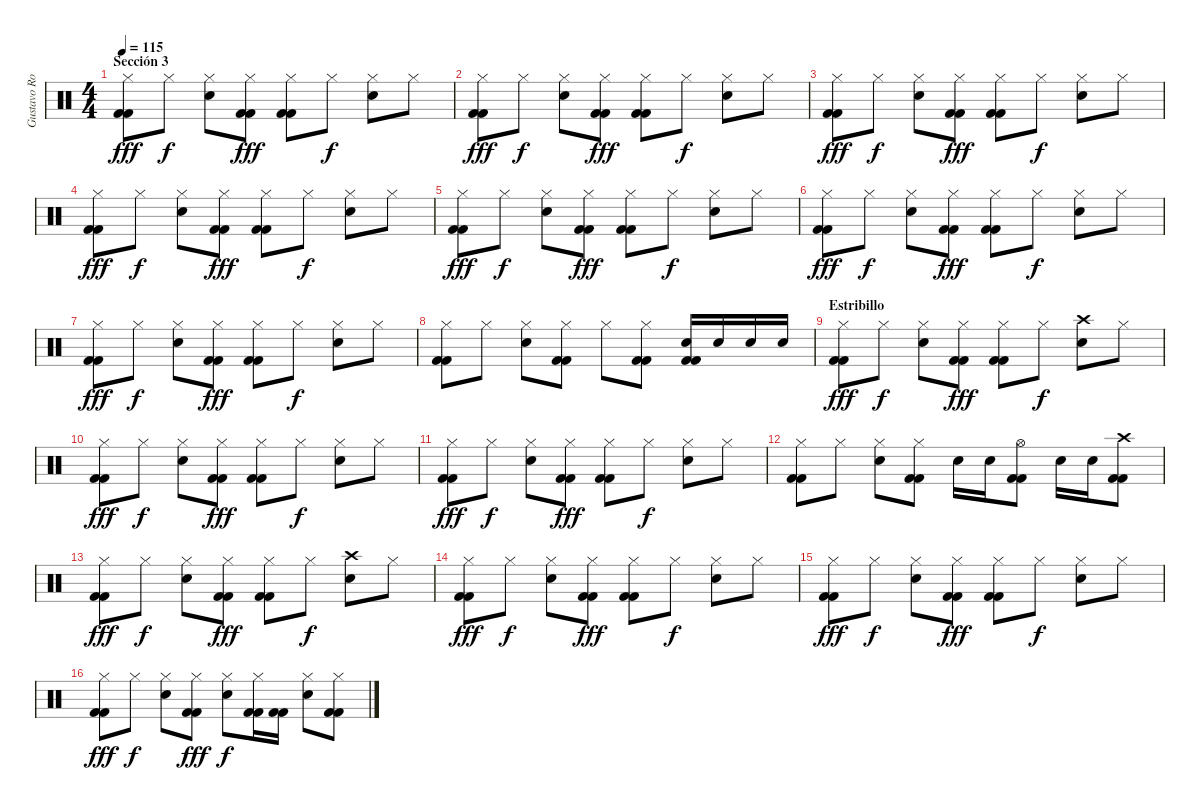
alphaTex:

\track ("Gustavo Rowek" "Gustavo Ro") {instrument percussion}
\staff {score}
\articulation defaults
\ts (4 4)
\section ("" "Sección 3")
\tempo 115
\clef neutral
\ks c
("Kick (hit) 2" "Kick (hit) 2" "Hi-Hat (closed)").8{dy fff} "Hi-Hat (closed)".8{dy f} ("Snare (hit) 2" "Hi-Hat (closed)").8 ("Kick (hit) 2" "Kick (hit) 2" "Hi-Hat (closed)").8{dy fff} ("Kick (hit) 2" "Kick (hit) 2" "Hi-Hat (closed)").8 "Hi-Hat (closed)".8{dy f} ("Snare (hit) 2" "Hi-Hat (closed)").8 "Hi-Hat (closed)".8 |
("Kick (hit) 2" "Kick (hit) 2" "Hi-Hat (closed)").8{dy fff} "Hi-Hat (closed)".8{dy f} ("Snare (hit) 2" "Hi-Hat (closed)").8 ("Kick (hit) 2" "Kick (hit) 2" "Hi-Hat (closed)").8{dy fff} ("Kick (hit) 2" "Kick (hit) 2" "Hi-Hat (closed)").8 "Hi-Hat (closed)".8{dy f} ("Snare (hit) 2" "Hi-Hat (closed)").8 "Hi-Hat (closed)".8 |
("Kick (hit) 2" "Kick (hit) 2" "Hi-Hat (closed)").8{dy fff} "Hi-Hat (closed)".8{dy f} ("Snare (hit) 2" "Hi-Hat (closed)").8 ("Kick (hit) 2" "Kick (hit) 2" "Hi-Hat (closed)").8{dy fff} ("Kick (hit) 2" "Kick (hit) 2" "Hi-Hat (closed)").8 "Hi-Hat (closed)".8{dy f} ("Snare (hit) 2" "Hi-Hat (closed)").8 "Hi-Hat (closed)".8 |
("Kick (hit) 2" "Kick (hit) 2" "Hi-Hat (closed)").8{dy fff} "Hi-Hat (closed)".8{dy f} ("Snare (hit) 2" "Hi-Hat (closed)").8 ("Kick (hit) 2" "Kick (hit) 2" "Hi-Hat (closed)").8{dy fff} ("Kick (hit) 2" "Kick (hit) 2" "Hi-Hat (closed)").8 "Hi-Hat (closed)".8{dy f} ("Snare (hit) 2" "Hi-Hat (closed)").8 "Hi-Hat (closed)".8 |
("Kick (hit) 2" "Kick (hit) 2" "Hi-Hat (closed)").8{dy fff} "Hi-Hat (closed)".8{dy f} ("Snare (hit) 2" "Hi-Hat (closed)").8 ("Kick (hit) 2" "Kick (hit) 2" "Hi-Hat (closed)").8{dy fff} ("Kick (hit) 2" "Kick (hit) 2" "Hi-Hat (closed)").8 "Hi-Hat (closed)".8{dy f} ("Snare (hit) 2" "Hi-Hat (closed)").8 "Hi-Hat (closed)".8 |
("Kick (hit) 2" "Kick (hit) 2" "Hi-Hat (closed)").8{dy fff} "Hi-Hat (closed)".8{dy f} ("Snare (hit) 2" "Hi-Hat (closed)").8 ("Kick (hit) 2" "Kick (hit) 2" "Hi-Hat (closed)").8{dy fff} ("Kick (hit) 2" "Kick (hit) 2" "Hi-Hat (closed)").8 "Hi-Hat (closed)".8{dy f} ("Snare (hit) 2" "Hi-Hat (closed)").8 "Hi-Hat (closed)".8 |
("Kick (hit) 2" "Kick (hit) 2" "Hi-Hat (closed)").8{dy fff} "Hi-Hat (closed)".8{dy f} ("Snare (hit) 2" "Hi-Hat (closed)").8 ("Kick (hit) 2" "Kick (hit) 2" "Hi-Hat (closed)").8{dy fff} ("Kick (hit) 2" "Kick (hit) 2" "Hi-Hat (closed)").8 "Hi-Hat (closed)".8{dy f} ("Snare (hit) 2" "Hi-Hat (closed)").8 "Hi-Hat (closed)".8 |
("Kick (hit) 2" "Kick (hit) 2" "Hi-Hat (closed)").8 "Hi-Hat (closed)".8 ("Snare (hit) 2" "Hi-Hat (closed)").8 ("Kick (hit) 2" "Kick (hit) 2" "Hi-Hat (closed)").8 "Hi-Hat (closed)".8 ("Kick (hit) 2" "Kick (hit) 2" "Hi-Hat (closed)").8 ("Kick (hit) 2" "Kick (hit) 2" "Snare (hit) 2").16 "Snare (hit) 2".16 "Snare (hit) 2".16 "Snare (hit) 2".16 |
\section ("" "Estribillo")
("Kick (hit) 2" "Kick (hit) 2" "Hi-Hat (closed)").8{dy fff} "Hi-Hat (closed)".8{dy f} ("Snare (hit) 2" "Hi-Hat (closed)").8 ("Kick (hit) 2" "Kick (hit) 2" "Hi-Hat (closed)").8{dy fff} ("Kick (hit) 2" "Kick (hit) 2" "Hi-Hat (closed)").8 "Hi-Hat (closed)".8{dy f} ("Snare (hit) 2" "Crash high (hit)").8 "Hi-Hat (closed)".8 |
("Kick (hit) 2" "Kick (hit) 2" "Hi-Hat (closed)").8{dy fff} "Hi-Hat (closed)".8{dy f} ("Snare (hit) 2" "Hi-Hat (closed)").8 ("Kick (hit) 2" "Kick (hit) 2" "Hi-Hat (closed)").8{dy fff} ("Kick (hit) 2" "Kick (hit) 2" "Hi-Hat (closed)").8 "Hi-Hat (closed)".8{dy f} ("Snare (hit) 2" "Hi-Hat (closed)").8 "Hi-Hat (closed)".8 |
("Kick (hit) 2" "Kick (hit) 2" "Hi-Hat (closed)").8{dy fff} "Hi-Hat (closed)".8{dy f} ("Snare (hit) 2" "Hi-Hat (closed)").8 ("Kick (hit) 2" "Kick (hit) 2" "Hi-Hat (closed)").8{dy fff} ("Kick (hit) 2" "Kick (hit) 2" "Hi-Hat (closed)").8 "Hi-Hat (closed)".8{dy f} ("Snare (hit) 2" "Hi-Hat (closed)").8 "Hi-Hat (closed)".8 |
("Kick (hit) 2" "Kick (hit) 2" "Hi-Hat (closed)").8 "Hi-Hat (closed)".8 ("Snare (hit) 2" "Hi-Hat (closed)").8 ("Kick (hit) 2" "Kick (hit) 2" "Hi-Hat (closed)").8 "Snare (hit) 2".16 "Snare (hit) 2".16 ("Kick (hit) 2" "Kick (hit) 2" "Hi-Hat (open)").8 "Snare (hit) 2".16 "Snare (hit) 2".16 ("Kick (hit) 2" "Kick (hit) 2" "Crash high (hit)").8 |
("Kick (hit) 2" "Kick (hit) 2" "Hi-Hat (closed)").8{dy fff} "Hi-Hat (closed)".8{dy f} ("Snare (hit) 2" "Hi-Hat (closed)").8 ("Kick (hit) 2" "Kick (hit) 2" "Hi-Hat (closed)").8{dy fff} ("Kick (hit) 2" "Kick (hit) 2" "Hi-Hat (closed)").8 "Hi-Hat (closed)".8{dy f} ("Snare (hit) 2" "Crash high (hit)").8 "Hi-Hat (closed)".8 |
("Kick (hit) 2" "Kick (hit) 2" "Hi-Hat (closed)").8{dy fff} "Hi-Hat (closed)".8{dy f} ("Snare (hit) 2" "Hi-Hat (closed)").8 ("Kick (hit) 2" "Kick (hit) 2" "Hi-Hat (closed)").8{dy fff} ("Kick (hit) 2" "Kick (hit) 2" "Hi-Hat (closed)").8 "Hi-Hat (closed)".8{dy f} ("Snare (hit) 2" "Hi-Hat (closed)").8 "Hi-Hat (closed)".8 |
("Kick (hit) 2" "Kick (hit) 2" "Hi-Hat (closed)").8{dy fff} "Hi-Hat (closed)".8{dy f} ("Snare (hit) 2" "Hi-Hat (closed)").8 ("Kick (hit) 2" "Kick (hit) 2" "Hi-Hat (closed)").8{dy fff} ("Kick (hit) 2" "Kick (hit) 2" "Hi-Hat (closed)").8 "Hi-Hat (closed)".8{dy f} ("Snare (hit) 2" "Hi-Hat (closed)").8 "Hi-Hat (closed)".8 |
("Kick (hit) 2" "Kick (hit) 2" "Hi-Hat (closed)").8{dy fff} "Hi-Hat (closed)".8{dy f} ("Snare (hit) 2" "Hi-Hat (closed)").8 ("Kick (hit) 2" "Kick (hit) 2" "Hi-Hat (closed)").8{dy fff} ("Snare (hit) 2" "Hi-Hat (closed)").8{dy f} ("Kick (hit) 2" "Kick (hit) 2" "Hi-Hat (closed)").16 ("Kick (hit) 2" "Kick (hit) 2").16 ("Snare (hit) 2" "Hi-Hat (closed)").8 ("Kick (hit) 2" "Kick (hit) 2" "Hi-Hat (closed)").8
